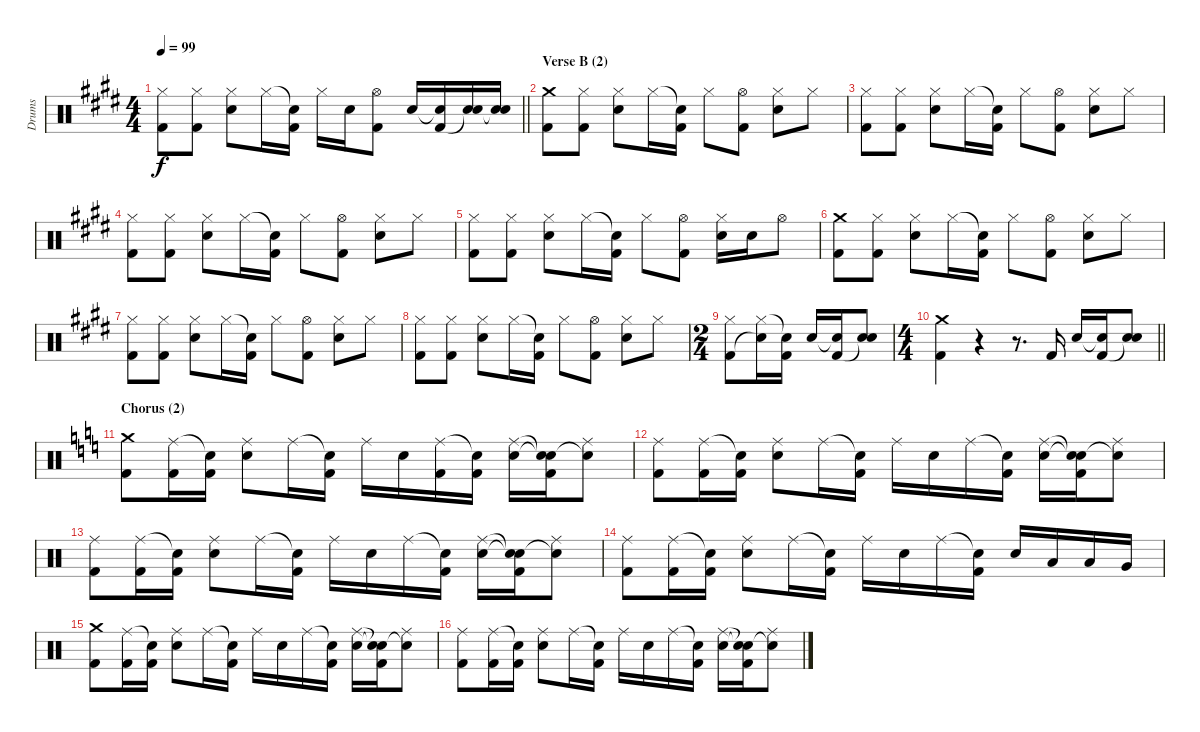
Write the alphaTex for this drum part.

\track ("Drums" "Drums") {instrument percussion}
\staff {score}
\articulation defaults
\ts (4 4)
\tempo 99
\clef neutral
\barLineRight lightlight
\ks c#minor
("Hi-Hat (closed)" "Kick (hit) 2").8{dy f} ("Hi-Hat (closed)" "Kick (hit) 2").8 ("Hi-Hat (closed)" "Electric Snare (hit)").8 "Hi-Hat (closed)".16 ("Snare (hit)"{t} "Kick (hit) 2").16 "Hi-Hat (closed)".16 "Electric Snare (hit)".16 ("Hi-Hat (open)" "Kick (hit) 2").8 "Electric Snare (hit)".16 ("Electric Snare (hit)"{t} "Kick (hit) 2").16 ("Electric Snare (hit)" "Snare (hit)"{t}).16 ("Electric Snare (hit)" "Snare (hit)"{t}).16 |
\section ("" "Verse B (2)")
("Crash medium (hit)" "Kick (hit) 2").8 ("Hi-Hat (closed)" "Kick (hit) 2").8 ("Hi-Hat (closed)" "Electric Snare (hit)").8 "Hi-Hat (closed)".16 ("Snare (hit)"{t} "Kick (hit) 2").16 "Hi-Hat (closed)".8 ("Hi-Hat (open)" "Kick (hit) 2").8 ("Hi-Hat (closed)" "Electric Snare (hit)").8 "Hi-Hat (closed)".8 |
("Hi-Hat (closed)" "Kick (hit) 2").8 ("Hi-Hat (closed)" "Kick (hit) 2").8 ("Hi-Hat (closed)" "Electric Snare (hit)").8 "Hi-Hat (closed)".16 ("Snare (hit)"{t} "Kick (hit) 2").16 "Hi-Hat (closed)".8 ("Hi-Hat (open)" "Kick (hit) 2").8 ("Hi-Hat (closed)" "Electric Snare (hit)").8 "Hi-Hat (closed)".8 |
("Hi-Hat (closed)" "Kick (hit) 2").8 ("Hi-Hat (closed)" "Kick (hit) 2").8 ("Hi-Hat (closed)" "Electric Snare (hit)").8 "Hi-Hat (closed)".16 ("Snare (hit)"{t} "Kick (hit) 2").16 "Hi-Hat (closed)".8 ("Hi-Hat (open)" "Kick (hit) 2").8 ("Hi-Hat (closed)" "Electric Snare (hit)").8 "Hi-Hat (closed)".8 |
("Hi-Hat (closed)" "Kick (hit) 2").8 ("Hi-Hat (closed)" "Kick (hit) 2").8 ("Hi-Hat (closed)" "Electric Snare (hit)").8 "Hi-Hat (closed)".16 ("Snare (hit)"{t} "Kick (hit) 2").16 "Hi-Hat (closed)".8 ("Hi-Hat (open)" "Kick (hit) 2").8 ("Hi-Hat (closed)" "Electric Snare (hit)").16 "Electric Snare (hit)".16 "Hi-Hat (open)".8 |
("Crash medium (hit)" "Kick (hit) 2").8 ("Hi-Hat (closed)" "Kick (hit) 2").8 ("Hi-Hat (closed)" "Electric Snare (hit)").8 "Hi-Hat (closed)".16 ("Snare (hit)"{t} "Kick (hit) 2").16 "Hi-Hat (closed)".8 ("Hi-Hat (open)" "Kick (hit) 2").8 ("Hi-Hat (closed)" "Electric Snare (hit)").8 "Hi-Hat (closed)".8 |
("Hi-Hat (closed)" "Kick (hit) 2").8 ("Hi-Hat (closed)" "Kick (hit) 2").8 ("Hi-Hat (closed)" "Electric Snare (hit)").8 "Hi-Hat (closed)".16 ("Snare (hit)"{t} "Kick (hit) 2").16 "Hi-Hat (closed)".8 ("Hi-Hat (open)" "Kick (hit) 2").8 ("Hi-Hat (closed)" "Electric Snare (hit)").8 "Hi-Hat (closed)".8 |
("Hi-Hat (closed)" "Kick (hit) 2").8 ("Hi-Hat (closed)" "Kick (hit) 2").8 ("Hi-Hat (closed)" "Electric Snare (hit)").8 "Hi-Hat (closed)".16 ("Snare (hit)"{t} "Kick (hit) 2").16 "Hi-Hat (closed)".8 ("Hi-Hat (open)" "Kick (hit) 2").8 ("Hi-Hat (closed)" "Electric Snare (hit)").8 "Hi-Hat (closed)".8 |
\ts (2 4)
("Hi-Hat (closed)" "Kick (hit) 2").8 ("Hi-Hat (closed)" "Snare (hit)"{t}).16 ("Snare (hit)"{t} "Kick (hit) 2").16 "Electric Snare (hit)".16 ("Snare (hit)"{t} "Kick (hit) 2").16 ("Electric Snare (hit)" "Snare (hit)"{t}).8 |
\ts (4 4)
\barLineRight lightlight
("Crash medium (hit)" "Kick (hit) 2").4 r.4 r.8{d} "Kick (hit) 2".16 "Electric Snare (hit)".16 ("Snare (hit)"{t} "Kick (hit) 2").16 ("Electric Snare (hit)" "Snare (hit)"{t}).8 |
\section ("" "Chorus (2)")
\ks c
("Crash medium (hit)" "Kick (hit) 2").8 ("Ride (middle)" "Kick (hit) 2").16 ("Snare (hit)"{t} "Kick (hit) 2").16 ("Ride (middle)" "Electric Snare (hit)").8 "Ride (middle)".16 ("Snare (hit)"{t} "Kick (hit) 2").16 "Ride (middle)".16 "Electric Snare (hit)".16 ("Ride (middle)" "Kick (hit) 2").16 ("Snare (hit)"{t} "Kick (hit) 2").16 ("Ride (middle)" "Electric Snare (hit)").16 ("Snare (hit)"{t} "Snare (hit)"{t} "Kick (hit) 2").16 ("Ride (middle)" "Snare (hit)"{t}).8 |
("Ride (middle)" "Kick (hit) 2").8 ("Ride (middle)" "Kick (hit) 2").16 ("Snare (hit)"{t} "Kick (hit) 2").16 ("Ride (middle)" "Electric Snare (hit)").8 "Ride (middle)".16 ("Snare (hit)"{t} "Kick (hit) 2").16 "Ride (middle)".16 "Electric Snare (hit)".16 "Ride (middle)".16 ("Snare (hit)"{t} "Kick (hit) 2").16 ("Ride (middle)" "Electric Snare (hit)").16 ("Snare (hit)"{t} "Snare (hit)"{t} "Kick (hit) 2").16 ("Ride (middle)" "Snare (hit)"{t}).8 |
("Ride (middle)" "Kick (hit) 2").8 ("Ride (middle)" "Kick (hit) 2").16 ("Snare (hit)"{t} "Kick (hit) 2").16 ("Ride (middle)" "Electric Snare (hit)").8 "Ride (middle)".16 ("Snare (hit)"{t} "Kick (hit) 2").16 "Ride (middle)".16 "Electric Snare (hit)".16 "Ride (middle)".16 ("Snare (hit)"{t} "Kick (hit) 2").16 ("Ride (middle)" "Electric Snare (hit)").16 ("Snare (hit)"{t} "Snare (hit)"{t} "Kick (hit) 2").16 ("Ride (middle)" "Snare (hit)"{t}).8 |
("Ride (middle)" "Kick (hit) 2").8 ("Ride (middle)" "Kick (hit) 2").16 ("Snare (hit)"{t} "Kick (hit) 2").16 ("Ride (middle)" "Electric Snare (hit)").8 "Ride (middle)".16 ("Snare (hit)"{t} "Kick (hit) 2").16 "Ride (middle)".16 "Electric Snare (hit)".16 "Ride (middle)".16 ("Snare (hit)"{t} "Kick (hit) 2").16 "Electric Snare (hit)".16 "Low Tom (hit)".16 "Low Tom (hit)".16 "Very Low Tom (hit)".16 |
("Crash medium (hit)" "Kick (hit) 2").8 ("Ride (middle)" "Kick (hit) 2").16 ("Snare (hit)"{t} "Kick (hit) 2").16 ("Ride (middle)" "Electric Snare (hit)").8 "Ride (middle)".16 ("Snare (hit)"{t} "Kick (hit) 2").16 "Ride (middle)".16 "Electric Snare (hit)".16 "Ride (middle)".16 ("Snare (hit)"{t} "Kick (hit) 2").16 ("Ride (middle)" "Electric Snare (hit)").16 ("Snare (hit)"{t} "Snare (hit)"{t} "Kick (hit) 2").16 ("Ride (middle)" "Snare (hit)"{t}).8 |
("Ride (middle)" "Kick (hit) 2").8 ("Ride (middle)" "Kick (hit) 2").16 ("Snare (hit)"{t} "Kick (hit) 2").16 ("Ride (middle)" "Electric Snare (hit)").8 "Ride (middle)".16 ("Snare (hit)"{t} "Kick (hit) 2").16 "Ride (middle)".16 "Electric Snare (hit)".16 "Ride (middle)".16 ("Snare (hit)"{t} "Kick (hit) 2").16 ("Ride (middle)" "Electric Snare (hit)").16 ("Snare (hit)"{t} "Snare (hit)"{t} "Kick (hit) 2").16 ("Ride (middle)" "Snare (hit)"{t}).8
